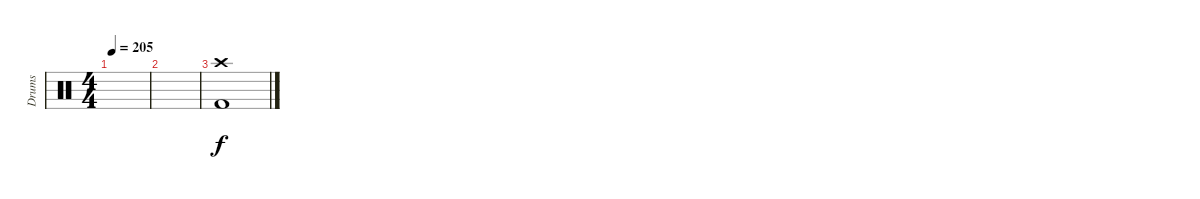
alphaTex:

\track ("Drums" "Drums") {instrument percussion}
\staff {score}
\articulation defaults
\ts (4 4)
\tempo 205
\clef neutral
\ks c
|
|
("Crash high (hit)" "Kick (hit) 2").1
